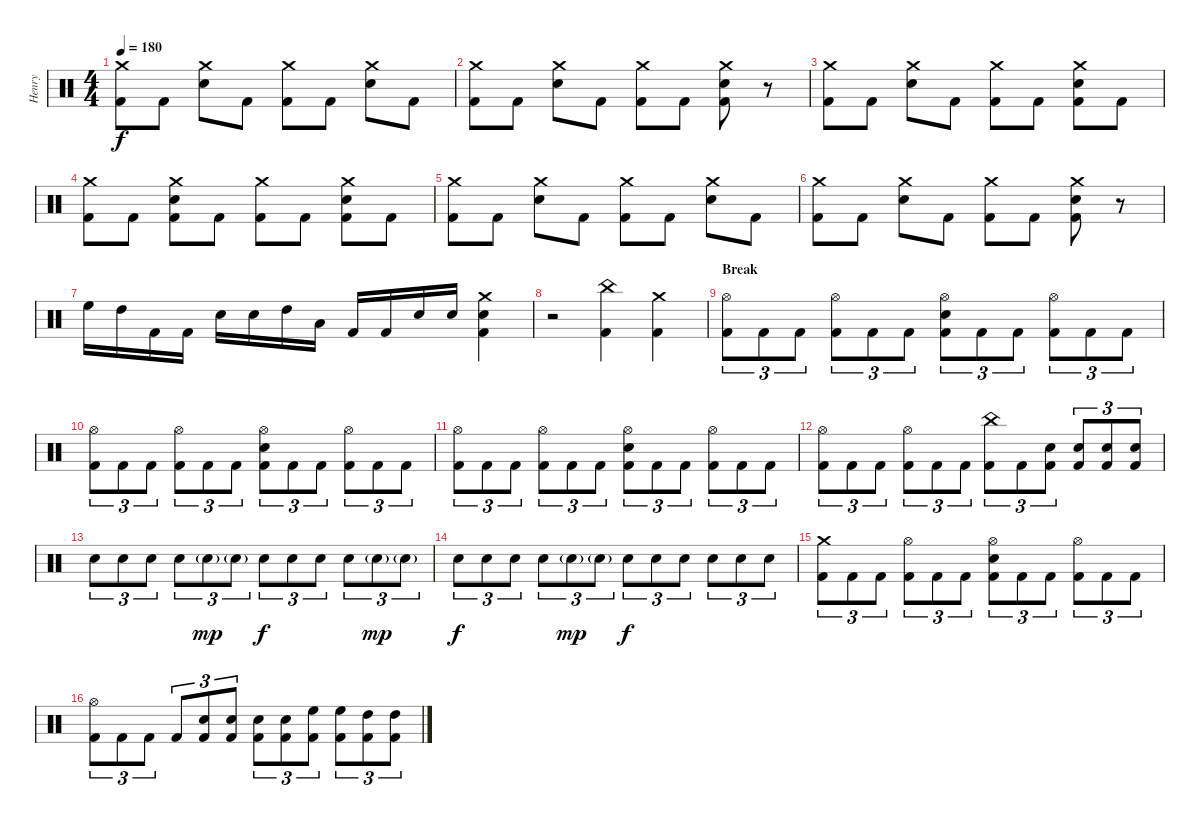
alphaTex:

\track ("Henry" "Henry") {instrument percussion}
\staff {score}
\articulation defaults
\ts (4 4)
\tempo 180
\clef neutral
\ks c
("Crash medium (hit)" "Kick (hit) 2").8{dy f} "Kick (hit) 2".8 ("Crash medium (hit)" "Snare (hit) 2").8 "Kick (hit) 2".8 ("Crash medium (hit)" "Kick (hit) 2").8 "Kick (hit) 2".8 ("Crash medium (hit)" "Snare (hit) 2").8 "Kick (hit) 2".8 |
("Crash medium (hit)" "Kick (hit) 2").8 "Kick (hit) 2".8 ("Crash medium (hit)" "Snare (hit) 2").8 "Kick (hit) 2".8 ("Crash medium (hit)" "Kick (hit) 2").8 "Kick (hit) 2".8 ("Crash medium (hit)" "Snare (hit) 2" "Kick (hit) 2").8 r.8 |
("Crash medium (hit)" "Kick (hit) 2").8 "Kick (hit) 2".8 ("Crash medium (hit)" "Snare (hit) 2").8 "Kick (hit) 2".8 ("Crash medium (hit)" "Kick (hit) 2").8 "Kick (hit) 2".8 ("Crash medium (hit)" "Snare (hit) 2" "Kick (hit) 2").8 "Kick (hit) 2".8 |
("Crash medium (hit)" "Kick (hit) 2").8 "Kick (hit) 2".8 ("Crash medium (hit)" "Snare (hit) 2" "Kick (hit) 2").8 "Kick (hit) 2".8 ("Crash medium (hit)" "Kick (hit) 2").8 "Kick (hit) 2".8 ("Crash medium (hit)" "Snare (hit) 2" "Kick (hit) 2").8 "Kick (hit) 2".8 |
("Crash medium (hit)" "Kick (hit) 2").8 "Kick (hit) 2".8 ("Crash medium (hit)" "Snare (hit) 2").8 "Kick (hit) 2".8 ("Crash medium (hit)" "Kick (hit) 2").8 "Kick (hit) 2".8 ("Crash medium (hit)" "Snare (hit) 2").8 "Kick (hit) 2".8 |
("Crash medium (hit)" "Kick (hit) 2").8 "Kick (hit) 2".8 ("Crash medium (hit)" "Snare (hit) 2").8 "Kick (hit) 2".8 ("Crash medium (hit)" "Kick (hit) 2").8 "Kick (hit) 2".8 ("Crash medium (hit)" "Snare (hit) 2" "Kick (hit) 2").8 r.8 |
"High Floor Tom (hit)".16 "High Tom (hit)".16 "Kick (hit) 2".16 "Kick (hit) 2".16 "Snare (hit) 2".16 "Snare (hit) 2".16 "High Tom (hit)".16 "Low Tom (hit)".16 "Kick (hit) 2".16 "Kick (hit) 2".16 "Snare (hit) 2".16 "Snare (hit) 2".16 ("Crash medium (hit)" "Snare (hit) 2" "Kick (hit) 2").4 |
r.2 ("China (hit)" "Kick (hit) 2").4 ("Crash medium (hit)" "Kick (hit) 2").4 |
\section ("" "Break")
("Hi-Hat (open)" "Kick (hit) 2").8{tu (3 2)} "Kick (hit) 2".8{tu (3 2)} "Kick (hit) 2".8{tu (3 2)} ("Hi-Hat (open)" "Kick (hit) 2").8{tu (3 2)} "Kick (hit) 2".8{tu (3 2)} "Kick (hit) 2".8{tu (3 2)} ("Hi-Hat (open)" "Snare (hit) 2" "Kick (hit) 2").8{tu (3 2)} "Kick (hit) 2".8{tu (3 2)} "Kick (hit) 2".8{tu (3 2)} ("Hi-Hat (open)" "Kick (hit) 2").8{tu (3 2)} "Kick (hit) 2".8{tu (3 2)} "Kick (hit) 2".8{tu (3 2)} |
("Hi-Hat (open)" "Kick (hit) 2").8{tu (3 2)} "Kick (hit) 2".8{tu (3 2)} "Kick (hit) 2".8{tu (3 2)} ("Hi-Hat (open)" "Kick (hit) 2").8{tu (3 2)} "Kick (hit) 2".8{tu (3 2)} "Kick (hit) 2".8{tu (3 2)} ("Hi-Hat (open)" "Snare (hit) 2" "Kick (hit) 2").8{tu (3 2)} "Kick (hit) 2".8{tu (3 2)} "Kick (hit) 2".8{tu (3 2)} ("Hi-Hat (open)" "Kick (hit) 2").8{tu (3 2)} "Kick (hit) 2".8{tu (3 2)} "Kick (hit) 2".8{tu (3 2)} |
("Hi-Hat (open)" "Kick (hit) 2").8{tu (3 2)} "Kick (hit) 2".8{tu (3 2)} "Kick (hit) 2".8{tu (3 2)} ("Hi-Hat (open)" "Kick (hit) 2").8{tu (3 2)} "Kick (hit) 2".8{tu (3 2)} "Kick (hit) 2".8{tu (3 2)} ("Hi-Hat (open)" "Snare (hit) 2" "Kick (hit) 2").8{tu (3 2)} "Kick (hit) 2".8{tu (3 2)} "Kick (hit) 2".8{tu (3 2)} ("Hi-Hat (open)" "Kick (hit) 2").8{tu (3 2)} "Kick (hit) 2".8{tu (3 2)} "Kick (hit) 2".8{tu (3 2)} |
("Hi-Hat (open)" "Kick (hit) 2").8{tu (3 2)} "Kick (hit) 2".8{tu (3 2)} "Kick (hit) 2".8{tu (3 2)} ("Hi-Hat (open)" "Kick (hit) 2").8{tu (3 2)} "Kick (hit) 2".8{tu (3 2)} "Kick (hit) 2".8{tu (3 2)} ("China (hit)" "Kick (hit) 2").8{tu (3 2)} "Kick (hit) 2".8{tu (3 2)} ("Snare (hit) 2" "Kick (hit) 2").8{tu (3 2)} ("Snare (hit) 2" "Kick (hit) 2").8{tu (3 2)} ("Snare (hit) 2" "Kick (hit) 2").8{tu (3 2)} ("Snare (hit) 2" "Kick (hit) 2").8{tu (3 2)} |
"Snare (hit) 2".8{tu (3 2)} "Snare (hit) 2".8{tu (3 2)} "Snare (hit) 2".8{tu (3 2)} "Snare (hit) 2".8{tu (3 2)} "Snare (hit) 2"{g}.8{tu (3 2) dy mp} "Snare (hit) 2"{g}.8{tu (3 2)} "Snare (hit) 2".8{tu (3 2) dy f} "Snare (hit) 2".8{tu (3 2)} "Snare (hit) 2".8{tu (3 2)} "Snare (hit) 2".8{tu (3 2)} "Snare (hit) 2"{g}.8{tu (3 2) dy mp} "Snare (hit) 2"{g}.8{tu (3 2)} |
"Snare (hit) 2".8{tu (3 2) dy f} "Snare (hit) 2".8{tu (3 2)} "Snare (hit) 2".8{tu (3 2)} "Snare (hit) 2".8{tu (3 2)} "Snare (hit) 2"{g}.8{tu (3 2) dy mp} "Snare (hit) 2"{g}.8{tu (3 2)} "Snare (hit) 2".8{tu (3 2) dy f} "Snare (hit) 2".8{tu (3 2)} "Snare (hit) 2".8{tu (3 2)} "Snare (hit) 2".8{tu (3 2)} "Snare (hit) 2".8{tu (3 2)} "Snare (hit) 2".8{tu (3 2)} |
("Crash medium (hit)" "Kick (hit) 2").8{tu (3 2)} "Kick (hit) 2".8{tu (3 2)} "Kick (hit) 2".8{tu (3 2)} ("Hi-Hat (open)" "Kick (hit) 2").8{tu (3 2)} "Kick (hit) 2".8{tu (3 2)} "Kick (hit) 2".8{tu (3 2)} ("Hi-Hat (open)" "Snare (hit) 2" "Kick (hit) 2").8{tu (3 2)} "Kick (hit) 2".8{tu (3 2)} "Kick (hit) 2".8{tu (3 2)} ("Hi-Hat (open)" "Kick (hit) 2").8{tu (3 2)} "Kick (hit) 2".8{tu (3 2)} "Kick (hit) 2".8{tu (3 2)} |
("Hi-Hat (open)" "Kick (hit) 2").8{tu (3 2)} "Kick (hit) 2".8{tu (3 2)} "Kick (hit) 2".8{tu (3 2)} "Kick (hit) 2".8{tu (3 2)} ("Snare (hit) 2" "Kick (hit) 2").8{tu (3 2)} ("Snare (hit) 2" "Kick (hit) 2").8{tu (3 2)} ("Snare (hit) 2" "Kick (hit) 2").8{tu (3 2)} ("Snare (hit) 2" "Kick (hit) 2").8{tu (3 2)} ("High Floor Tom (hit)" "Kick (hit) 2").8{tu (3 2)} ("High Floor Tom (hit)" "Kick (hit) 2").8{tu (3 2)} ("High Tom (hit)" "Kick (hit) 2").8{tu (3 2)} ("High Tom (hit)" "Kick (hit) 2").8{tu (3 2)}
